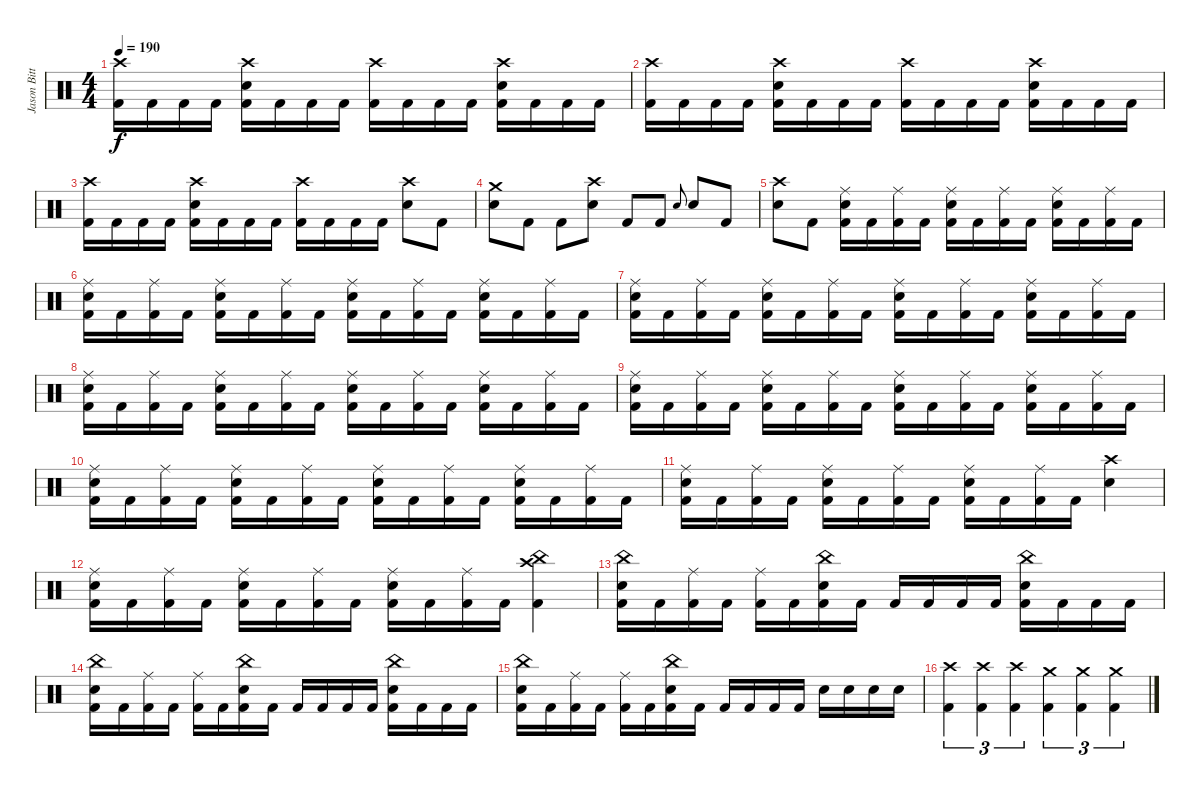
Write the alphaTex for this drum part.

\track ("Jason Bittner" "Jason Bitt") {instrument percussion}
\staff {score}
\articulation defaults
\ts (4 4)
\tempo 190
\clef neutral
\ks c
("Crash high (hit)" "Kick (hit) 2").16{dy f} "Kick (hit) 2".16 "Kick (hit) 2".16 "Kick (hit) 2".16 ("Crash high (hit)" "Electric Snare (hit)" "Kick (hit) 2").16 "Kick (hit) 2".16 "Kick (hit) 2".16 "Kick (hit) 2".16 ("Crash high (hit)" "Kick (hit) 2").16 "Kick (hit) 2".16 "Kick (hit) 2".16 "Kick (hit) 2".16 ("Crash high (hit)" "Electric Snare (hit)" "Kick (hit) 2").16 "Kick (hit) 2".16 "Kick (hit) 2".16 "Kick (hit) 2".16 |
("Crash high (hit)" "Kick (hit) 2").16 "Kick (hit) 2".16 "Kick (hit) 2".16 "Kick (hit) 2".16 ("Crash high (hit)" "Electric Snare (hit)" "Kick (hit) 2").16 "Kick (hit) 2".16 "Kick (hit) 2".16 "Kick (hit) 2".16 ("Crash high (hit)" "Kick (hit) 2").16 "Kick (hit) 2".16 "Kick (hit) 2".16 "Kick (hit) 2".16 ("Crash high (hit)" "Electric Snare (hit)" "Kick (hit) 2").16 "Kick (hit) 2".16 "Kick (hit) 2".16 "Kick (hit) 2".16 |
("Crash high (hit)" "Kick (hit) 2").16 "Kick (hit) 2".16 "Kick (hit) 2".16 "Kick (hit) 2".16 ("Crash high (hit)" "Electric Snare (hit)" "Kick (hit) 2").16 "Kick (hit) 2".16 "Kick (hit) 2".16 "Kick (hit) 2".16 ("Crash high (hit)" "Kick (hit) 2").16 "Kick (hit) 2".16 "Kick (hit) 2".16 "Kick (hit) 2".16 ("Crash high (hit)" "Electric Snare (hit)").8 "Kick (hit) 2".8 |
("Crash medium (hit)" "Electric Snare (hit)").8 "Kick (hit) 2".8 "Kick (hit) 2".8 ("Crash high (hit)" "Electric Snare (hit)").8 "Kick (hit) 2".8 "Kick (hit) 2".8 "Electric Snare (hit)".8{gr onbeat} "Electric Snare (hit)".8 "Kick (hit) 2".8 |
("Crash high (hit)" "Electric Snare (hit)").8 "Kick (hit) 2".8 ("Ride (middle)" "Electric Snare (hit)" "Kick (hit) 2").16 "Kick (hit) 2".16 ("Ride (middle)" "Kick (hit) 2").16 "Kick (hit) 2".16 ("Ride (middle)" "Electric Snare (hit)" "Kick (hit) 2").16 "Kick (hit) 2".16 ("Ride (middle)" "Kick (hit) 2").16 "Kick (hit) 2".16 ("Ride (middle)" "Electric Snare (hit)" "Kick (hit) 2").16 "Kick (hit) 2".16 ("Ride (middle)" "Kick (hit) 2").16 "Kick (hit) 2".16 |
("Ride (middle)" "Electric Snare (hit)" "Kick (hit) 2").16 "Kick (hit) 2".16 ("Ride (middle)" "Kick (hit) 2").16 "Kick (hit) 2".16 ("Ride (middle)" "Electric Snare (hit)" "Kick (hit) 2").16 "Kick (hit) 2".16 ("Ride (middle)" "Kick (hit) 2").16 "Kick (hit) 2".16 ("Ride (middle)" "Electric Snare (hit)" "Kick (hit) 2").16 "Kick (hit) 2".16 ("Ride (middle)" "Kick (hit) 2").16 "Kick (hit) 2".16 ("Ride (middle)" "Electric Snare (hit)" "Kick (hit) 2").16 "Kick (hit) 2".16 ("Ride (middle)" "Kick (hit) 2").16 "Kick (hit) 2".16 |
("Ride (middle)" "Electric Snare (hit)" "Kick (hit) 2").16 "Kick (hit) 2".16 ("Ride (middle)" "Kick (hit) 2").16 "Kick (hit) 2".16 ("Ride (middle)" "Electric Snare (hit)" "Kick (hit) 2").16 "Kick (hit) 2".16 ("Ride (middle)" "Kick (hit) 2").16 "Kick (hit) 2".16 ("Ride (middle)" "Electric Snare (hit)" "Kick (hit) 2").16 "Kick (hit) 2".16 ("Ride (middle)" "Kick (hit) 2").16 "Kick (hit) 2".16 ("Ride (middle)" "Electric Snare (hit)" "Kick (hit) 2").16 "Kick (hit) 2".16 ("Ride (middle)" "Kick (hit) 2").16 "Kick (hit) 2".16 |
("Ride (middle)" "Electric Snare (hit)" "Kick (hit) 2").16 "Kick (hit) 2".16 ("Ride (middle)" "Kick (hit) 2").16 "Kick (hit) 2".16 ("Ride (middle)" "Electric Snare (hit)" "Kick (hit) 2").16 "Kick (hit) 2".16 ("Ride (middle)" "Kick (hit) 2").16 "Kick (hit) 2".16 ("Ride (middle)" "Electric Snare (hit)" "Kick (hit) 2").16 "Kick (hit) 2".16 ("Ride (middle)" "Kick (hit) 2").16 "Kick (hit) 2".16 ("Ride (middle)" "Electric Snare (hit)" "Kick (hit) 2").16 "Kick (hit) 2".16 ("Ride (middle)" "Kick (hit) 2").16 "Kick (hit) 2".16 |
("Ride (middle)" "Electric Snare (hit)" "Kick (hit) 2").16 "Kick (hit) 2".16 ("Ride (middle)" "Kick (hit) 2").16 "Kick (hit) 2".16 ("Ride (middle)" "Electric Snare (hit)" "Kick (hit) 2").16 "Kick (hit) 2".16 ("Ride (middle)" "Kick (hit) 2").16 "Kick (hit) 2".16 ("Ride (middle)" "Electric Snare (hit)" "Kick (hit) 2").16 "Kick (hit) 2".16 ("Ride (middle)" "Kick (hit) 2").16 "Kick (hit) 2".16 ("Ride (middle)" "Electric Snare (hit)" "Kick (hit) 2").16 "Kick (hit) 2".16 ("Ride (middle)" "Kick (hit) 2").16 "Kick (hit) 2".16 |
("Ride (middle)" "Electric Snare (hit)" "Kick (hit) 2").16 "Kick (hit) 2".16 ("Ride (middle)" "Kick (hit) 2").16 "Kick (hit) 2".16 ("Ride (middle)" "Electric Snare (hit)" "Kick (hit) 2").16 "Kick (hit) 2".16 ("Ride (middle)" "Kick (hit) 2").16 "Kick (hit) 2".16 ("Ride (middle)" "Electric Snare (hit)" "Kick (hit) 2").16 "Kick (hit) 2".16 ("Ride (middle)" "Kick (hit) 2").16 "Kick (hit) 2".16 ("Ride (middle)" "Electric Snare (hit)" "Kick (hit) 2").16 "Kick (hit) 2".16 ("Ride (middle)" "Kick (hit) 2").16 "Kick (hit) 2".16 |
("Ride (middle)" "Electric Snare (hit)" "Kick (hit) 2").16 "Kick (hit) 2".16 ("Ride (middle)" "Kick (hit) 2").16 "Kick (hit) 2".16 ("Ride (middle)" "Electric Snare (hit)" "Kick (hit) 2").16 "Kick (hit) 2".16 ("Ride (middle)" "Kick (hit) 2").16 "Kick (hit) 2".16 ("Ride (middle)" "Electric Snare (hit)" "Kick (hit) 2").16 "Kick (hit) 2".16 ("Ride (middle)" "Kick (hit) 2").16 "Kick (hit) 2".16 ("Crash high (hit)" "Electric Snare (hit)").4 |
("Ride (middle)" "Electric Snare (hit)" "Kick (hit) 2").16 "Kick (hit) 2".16 ("Ride (middle)" "Kick (hit) 2").16 "Kick (hit) 2".16 ("Ride (middle)" "Electric Snare (hit)" "Kick (hit) 2").16 "Kick (hit) 2".16 ("Ride (middle)" "Kick (hit) 2").16 "Kick (hit) 2".16 ("Ride (middle)" "Electric Snare (hit)" "Kick (hit) 2").16 "Kick (hit) 2".16 ("Ride (middle)" "Kick (hit) 2").16 "Kick (hit) 2".16 ("China (hit)" "Crash high (hit)" "Kick (hit) 2").4 |
("China (hit)" "Electric Snare (hit)" "Kick (hit) 2").16 "Kick (hit) 2".16 ("Ride (middle)" "Kick (hit) 2").16 "Kick (hit) 2".16 ("Ride (middle)" "Kick (hit) 2").16 "Kick (hit) 2".16 ("China (hit)" "Electric Snare (hit)" "Kick (hit) 2").16 "Kick (hit) 2".16 "Kick (hit) 2".16 "Kick (hit) 2".16 "Kick (hit) 2".16 "Kick (hit) 2".16 ("China (hit)" "Electric Snare (hit)" "Kick (hit) 2").16 "Kick (hit) 2".16 "Kick (hit) 2".16 "Kick (hit) 2".16 |
("China (hit)" "Electric Snare (hit)" "Kick (hit) 2").16 "Kick (hit) 2".16 ("Ride (middle)" "Kick (hit) 2").16 "Kick (hit) 2".16 ("Ride (middle)" "Kick (hit) 2").16 "Kick (hit) 2".16 ("China (hit)" "Electric Snare (hit)" "Kick (hit) 2").16 "Kick (hit) 2".16 "Kick (hit) 2".16 "Kick (hit) 2".16 "Kick (hit) 2".16 "Kick (hit) 2".16 ("China (hit)" "Electric Snare (hit)" "Kick (hit) 2").16 "Kick (hit) 2".16 "Kick (hit) 2".16 "Kick (hit) 2".16 |
("China (hit)" "Electric Snare (hit)" "Kick (hit) 2").16 "Kick (hit) 2".16 ("Ride (middle)" "Kick (hit) 2").16 "Kick (hit) 2".16 ("Ride (middle)" "Kick (hit) 2").16 "Kick (hit) 2".16 ("China (hit)" "Electric Snare (hit)" "Kick (hit) 2").16 "Kick (hit) 2".16 "Kick (hit) 2".16 "Kick (hit) 2".16 "Kick (hit) 2".16 "Kick (hit) 2".16 "Electric Snare (hit)".16 "Electric Snare (hit)".16 "Electric Snare (hit)".16 "Electric Snare (hit)".16 |
("Crash high (hit)" "Kick (hit) 2").4{tu (3 2)} ("Crash high (hit)" "Kick (hit) 2").4{tu (3 2)} ("Crash high (hit)" "Kick (hit) 2").4{tu (3 2)} ("Crash medium (hit)" "Kick (hit) 2").4{tu (3 2)} ("Crash medium (hit)" "Kick (hit) 2").4{tu (3 2)} ("Crash medium (hit)" "Kick (hit) 2").4{tu (3 2)}
